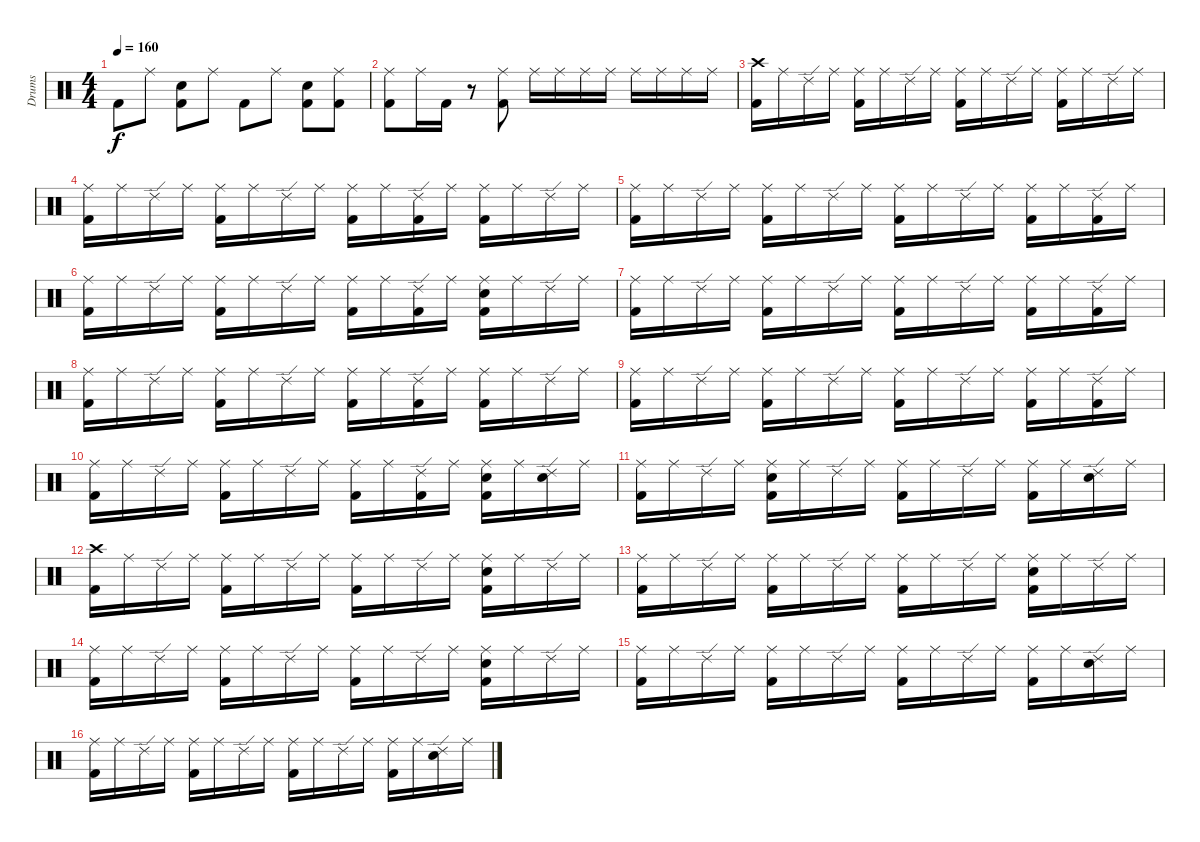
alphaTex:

\track ("Drums" "Drums") {instrument percussion}
\staff {score}
\articulation defaults
\ts (4 4)
\tempo 160
\clef neutral
\ks c "Kick (hit) 2".8{dy f} "Ride (middle)".8
("Electric Snare (hit)" "Kick (hit) 2").8 "Ride (middle)".8 "Kick (hit) 2".8 "Ride (middle)".8 ("Electric Snare (hit)" "Kick (hit) 2").8 ("Ride (middle)" "Kick (hit) 2").8 |
("Ride (middle)" "Kick (hit) 2").8 "Ride (middle)".16 "Kick (hit) 2".16 r.8 ("Ride (middle)" "Kick (hit) 2").8 "Ride (middle)".16 "Ride (middle)".16 "Ride (middle)".16 "Ride (middle)".16 "Ride (middle)".16 "Ride (middle)".16 "Ride (middle)".16 "Ride (middle)".16 |
("Crash high (hit)" "Kick (hit) 2").16 "Ride (middle)".16 "Ride (edge) 2".16 "Ride (middle)".16 ("Ride (middle)" "Kick (hit) 2").16 "Ride (middle)".16 "Ride (edge) 2".16 "Ride (middle)".16 ("Ride (middle)" "Kick (hit) 2").16 "Ride (middle)".16 "Ride (edge) 2".16 "Ride (middle)".16 ("Ride (middle)" "Kick (hit) 2").16 "Ride (middle)".16 "Ride (edge) 2".16 "Ride (middle)".16 |
("Ride (middle)" "Kick (hit) 2").16 "Ride (middle)".16 "Ride (edge) 2".16 "Ride (middle)".16 ("Ride (middle)" "Kick (hit) 2").16 "Ride (middle)".16 "Ride (edge) 2".16 "Ride (middle)".16 ("Ride (middle)" "Kick (hit) 2").16 "Ride (middle)".16 ("Ride (edge) 2" "Kick (hit) 2").16 "Ride (middle)".16 ("Ride (middle)" "Kick (hit) 2").16 "Ride (middle)".16 "Ride (edge) 2".16 "Ride (middle)".16 |
("Ride (middle)" "Kick (hit) 2").16 "Ride (middle)".16 "Ride (edge) 2".16 "Ride (middle)".16 ("Ride (middle)" "Kick (hit) 2").16 "Ride (middle)".16 "Ride (edge) 2".16 "Ride (middle)".16 ("Ride (middle)" "Kick (hit) 2").16 "Ride (middle)".16 "Ride (edge) 2".16 "Ride (middle)".16 ("Ride (middle)" "Kick (hit) 2").16 "Ride (middle)".16 ("Ride (edge) 2" "Kick (hit) 2").16 "Ride (middle)".16 |
("Ride (middle)" "Kick (hit) 2").16 "Ride (middle)".16 "Ride (edge) 2".16 "Ride (middle)".16 ("Ride (middle)" "Kick (hit) 2").16 "Ride (middle)".16 "Ride (edge) 2".16 "Ride (middle)".16 ("Ride (middle)" "Kick (hit) 2").16 "Ride (middle)".16 ("Ride (edge) 2" "Kick (hit) 2").16 "Ride (middle)".16 ("Ride (middle)" "Electric Snare (hit)" "Kick (hit) 2").16 "Ride (middle)".16 "Ride (edge) 2".16 "Ride (middle)".16 |
("Ride (middle)" "Kick (hit) 2").16 "Ride (middle)".16 "Ride (edge) 2".16 "Ride (middle)".16 ("Ride (middle)" "Kick (hit) 2").16 "Ride (middle)".16 "Ride (edge) 2".16 "Ride (middle)".16 ("Ride (middle)" "Kick (hit) 2").16 "Ride (middle)".16 "Ride (edge) 2".16 "Ride (middle)".16 ("Ride (middle)" "Kick (hit) 2").16 "Ride (middle)".16 ("Ride (edge) 2" "Kick (hit) 2").16 "Ride (middle)".16 |
("Ride (middle)" "Kick (hit) 2").16 "Ride (middle)".16 "Ride (edge) 2".16 "Ride (middle)".16 ("Ride (middle)" "Kick (hit) 2").16 "Ride (middle)".16 "Ride (edge) 2".16 "Ride (middle)".16 ("Ride (middle)" "Kick (hit) 2").16 "Ride (middle)".16 ("Ride (edge) 2" "Kick (hit) 2").16 "Ride (middle)".16 ("Ride (middle)" "Kick (hit) 2").16 "Ride (middle)".16 "Ride (edge) 2".16 "Ride (middle)".16 |
("Ride (middle)" "Kick (hit) 2").16 "Ride (middle)".16 "Ride (edge) 2".16 "Ride (middle)".16 ("Ride (middle)" "Kick (hit) 2").16 "Ride (middle)".16 "Ride (edge) 2".16 "Ride (middle)".16 ("Ride (middle)" "Kick (hit) 2").16 "Ride (middle)".16 "Ride (edge) 2".16 "Ride (middle)".16 ("Ride (middle)" "Kick (hit) 2").16 "Ride (middle)".16 ("Ride (edge) 2" "Kick (hit) 2").16 "Ride (middle)".16 |
("Ride (middle)" "Kick (hit) 2").16 "Ride (middle)".16 "Ride (edge) 2".16 "Ride (middle)".16 ("Ride (middle)" "Kick (hit) 2").16 "Ride (middle)".16 "Ride (edge) 2".16 "Ride (middle)".16 ("Ride (middle)" "Kick (hit) 2").16 "Ride (middle)".16 ("Ride (edge) 2" "Kick (hit) 2").16 "Ride (middle)".16 ("Ride (middle)" "Electric Snare (hit)" "Kick (hit) 2").16 "Ride (middle)".16 ("Ride (edge) 2" "Electric Snare (hit)").16 "Ride (middle)".16 |
("Ride (middle)" "Kick (hit) 2").16 "Ride (middle)".16 "Ride (edge) 2".16 "Ride (middle)".16 ("Ride (middle)" "Electric Snare (hit)" "Kick (hit) 2").16 "Ride (middle)".16 "Ride (edge) 2".16 "Ride (middle)".16 ("Ride (middle)" "Kick (hit) 2").16 "Ride (middle)".16 "Ride (edge) 2".16 "Ride (middle)".16 ("Ride (middle)" "Kick (hit) 2").16 "Ride (middle)".16 ("Ride (edge) 2" "Electric Snare (hit)").16 "Ride (middle)".16 |
("Crash high (hit)" "Kick (hit) 2").16 "Ride (middle)".16 "Ride (edge) 2".16 "Ride (middle)".16 ("Ride (middle)" "Kick (hit) 2").16 "Ride (middle)".16 "Ride (edge) 2".16 "Ride (middle)".16 ("Ride (middle)" "Kick (hit) 2").16 "Ride (middle)".16 "Ride (edge) 2".16 "Ride (middle)".16 ("Ride (middle)" "Electric Snare (hit)" "Kick (hit) 2").16 "Ride (middle)".16 "Ride (edge) 2".16 "Ride (middle)".16 |
("Ride (middle)" "Kick (hit) 2").16 "Ride (middle)".16 "Ride (edge) 2".16 "Ride (middle)".16 ("Ride (middle)" "Kick (hit) 2").16 "Ride (middle)".16 "Ride (edge) 2".16 "Ride (middle)".16 ("Ride (middle)" "Kick (hit) 2").16 "Ride (middle)".16 "Ride (edge) 2".16 "Ride (middle)".16 ("Ride (middle)" "Electric Snare (hit)" "Kick (hit) 2").16 "Ride (middle)".16 "Ride (edge) 2".16 "Ride (middle)".16 |
("Ride (middle)" "Kick (hit) 2").16 "Ride (middle)".16 "Ride (edge) 2".16 "Ride (middle)".16 ("Ride (middle)" "Kick (hit) 2").16 "Ride (middle)".16 "Ride (edge) 2".16 "Ride (middle)".16 ("Ride (middle)" "Kick (hit) 2").16 "Ride (middle)".16 "Ride (edge) 2".16 "Ride (middle)".16 ("Ride (middle)" "Electric Snare (hit)" "Kick (hit) 2").16 "Ride (middle)".16 "Ride (edge) 2".16 "Ride (middle)".16 |
("Ride (middle)" "Kick (hit) 2").16 "Ride (middle)".16 "Ride (edge) 2".16 "Ride (middle)".16 ("Ride (middle)" "Kick (hit) 2").16 "Ride (middle)".16 "Ride (edge) 2".16 "Ride (middle)".16 ("Ride (middle)" "Kick (hit) 2").16 "Ride (middle)".16 "Ride (edge) 2".16 "Ride (middle)".16 ("Ride (middle)" "Kick (hit) 2").16 "Ride (middle)".16 ("Ride (edge) 2" "Electric Snare (hit)").16 "Ride (middle)".16 |
("Ride (middle)" "Kick (hit) 2").16 "Ride (middle)".16 "Ride (edge) 2".16 "Ride (middle)".16 ("Ride (middle)" "Kick (hit) 2").16 "Ride (middle)".16 "Ride (edge) 2".16 "Ride (middle)".16 ("Ride (middle)" "Kick (hit) 2").16 "Ride (middle)".16 "Ride (edge) 2".16 "Ride (middle)".16 ("Ride (middle)" "Kick (hit) 2").16 "Ride (middle)".16 ("Ride (edge) 2" "Electric Snare (hit)").16 "Ride (middle)".16
